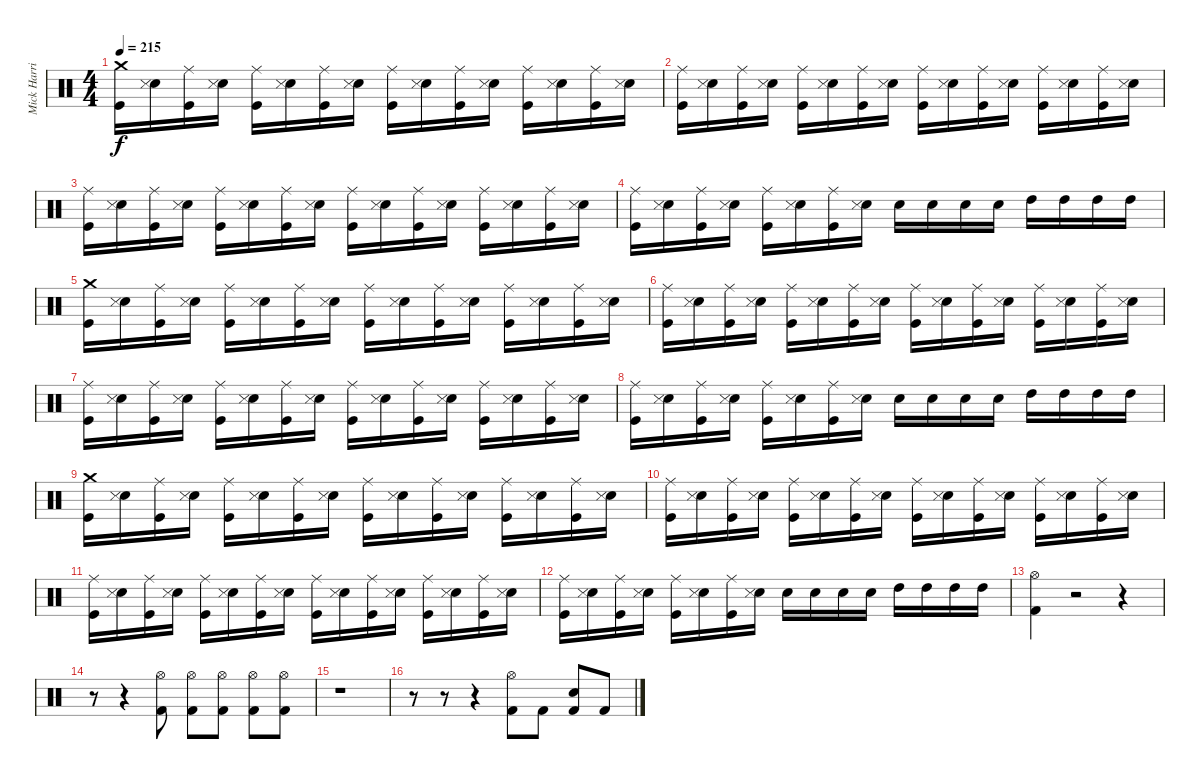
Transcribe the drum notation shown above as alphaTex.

\track ("Mick Harris (Drums)" "Mick Harri") {instrument percussion}
\staff {score}
\articulation defaults
\ts (4 4)
\tempo 215
\clef neutral
\ks c
("Kick (hit)" "Crash medium (hit)").16{dy f} ("Electric Snare (hit)" "Snare (side stick) 3").16 ("Kick (hit)" "Ride (middle)").16 ("Electric Snare (hit)" "Snare (side stick) 3").16 ("Kick (hit)" "Ride (middle)").16 ("Electric Snare (hit)" "Snare (side stick) 3").16 ("Kick (hit)" "Ride (middle)").16 ("Electric Snare (hit)" "Snare (side stick) 3").16 ("Kick (hit)" "Ride (middle)").16 ("Electric Snare (hit)" "Snare (side stick) 3").16 ("Kick (hit)" "Ride (middle)").16 ("Electric Snare (hit)" "Snare (side stick) 3").16 ("Kick (hit)" "Ride (middle)").16 ("Electric Snare (hit)" "Snare (side stick) 3").16 ("Kick (hit)" "Ride (middle)").16 ("Electric Snare (hit)" "Snare (side stick) 3").16 |
("Kick (hit)" "Ride (middle)").16 ("Electric Snare (hit)" "Snare (side stick) 3").16 ("Kick (hit)" "Ride (middle)").16 ("Electric Snare (hit)" "Snare (side stick) 3").16 ("Kick (hit)" "Ride (middle)").16 ("Electric Snare (hit)" "Snare (side stick) 3").16 ("Kick (hit)" "Ride (middle)").16 ("Electric Snare (hit)" "Snare (side stick) 3").16 ("Kick (hit)" "Ride (middle)").16 ("Electric Snare (hit)" "Snare (side stick) 3").16 ("Kick (hit)" "Ride (middle)").16 ("Electric Snare (hit)" "Snare (side stick) 3").16 ("Kick (hit)" "Ride (middle)").16 ("Electric Snare (hit)" "Snare (side stick) 3").16 ("Kick (hit)" "Ride (middle)").16 ("Electric Snare (hit)" "Snare (side stick) 3").16 |
("Kick (hit)" "Ride (middle)").16 ("Electric Snare (hit)" "Snare (side stick) 3").16 ("Kick (hit)" "Ride (middle)").16 ("Electric Snare (hit)" "Snare (side stick) 3").16 ("Kick (hit)" "Ride (middle)").16 ("Electric Snare (hit)" "Snare (side stick) 3").16 ("Kick (hit)" "Ride (middle)").16 ("Electric Snare (hit)" "Snare (side stick) 3").16 ("Kick (hit)" "Ride (middle)").16 ("Electric Snare (hit)" "Snare (side stick) 3").16 ("Kick (hit)" "Ride (middle)").16 ("Electric Snare (hit)" "Snare (side stick) 3").16 ("Kick (hit)" "Ride (middle)").16 ("Electric Snare (hit)" "Snare (side stick) 3").16 ("Kick (hit)" "Ride (middle)").16 ("Electric Snare (hit)" "Snare (side stick) 3").16 |
("Kick (hit)" "Ride (middle)").16 ("Electric Snare (hit)" "Snare (side stick) 3").16 ("Kick (hit)" "Ride (middle)").16 ("Electric Snare (hit)" "Snare (side stick) 3").16 ("Kick (hit)" "Ride (middle)").16 ("Electric Snare (hit)" "Snare (side stick) 3").16 ("Kick (hit)" "Ride (middle)").16 ("Electric Snare (hit)" "Snare (side stick) 3").16 "Electric Snare (hit)".16 "Electric Snare (hit)".16 "Electric Snare (hit)".16 "Electric Snare (hit)".16 "High Tom (hit)".16 "High Tom (hit)".16 "High Tom (hit)".16 "High Tom (hit)".16 |
("Kick (hit)" "Crash medium (hit)").16 ("Electric Snare (hit)" "Snare (side stick) 3").16 ("Kick (hit)" "Ride (middle)").16 ("Electric Snare (hit)" "Snare (side stick) 3").16 ("Kick (hit)" "Ride (middle)").16 ("Electric Snare (hit)" "Snare (side stick) 3").16 ("Kick (hit)" "Ride (middle)").16 ("Electric Snare (hit)" "Snare (side stick) 3").16 ("Kick (hit)" "Ride (middle)").16 ("Electric Snare (hit)" "Snare (side stick) 3").16 ("Kick (hit)" "Ride (middle)").16 ("Electric Snare (hit)" "Snare (side stick) 3").16 ("Kick (hit)" "Ride (middle)").16 ("Electric Snare (hit)" "Snare (side stick) 3").16 ("Kick (hit)" "Ride (middle)").16 ("Electric Snare (hit)" "Snare (side stick) 3").16 |
("Kick (hit)" "Ride (middle)").16 ("Electric Snare (hit)" "Snare (side stick) 3").16 ("Kick (hit)" "Ride (middle)").16 ("Electric Snare (hit)" "Snare (side stick) 3").16 ("Kick (hit)" "Ride (middle)").16 ("Electric Snare (hit)" "Snare (side stick) 3").16 ("Kick (hit)" "Ride (middle)").16 ("Electric Snare (hit)" "Snare (side stick) 3").16 ("Kick (hit)" "Ride (middle)").16 ("Electric Snare (hit)" "Snare (side stick) 3").16 ("Kick (hit)" "Ride (middle)").16 ("Electric Snare (hit)" "Snare (side stick) 3").16 ("Kick (hit)" "Ride (middle)").16 ("Electric Snare (hit)" "Snare (side stick) 3").16 ("Kick (hit)" "Ride (middle)").16 ("Electric Snare (hit)" "Snare (side stick) 3").16 |
("Kick (hit)" "Ride (middle)").16 ("Electric Snare (hit)" "Snare (side stick) 3").16 ("Kick (hit)" "Ride (middle)").16 ("Electric Snare (hit)" "Snare (side stick) 3").16 ("Kick (hit)" "Ride (middle)").16 ("Electric Snare (hit)" "Snare (side stick) 3").16 ("Kick (hit)" "Ride (middle)").16 ("Electric Snare (hit)" "Snare (side stick) 3").16 ("Kick (hit)" "Ride (middle)").16 ("Electric Snare (hit)" "Snare (side stick) 3").16 ("Kick (hit)" "Ride (middle)").16 ("Electric Snare (hit)" "Snare (side stick) 3").16 ("Kick (hit)" "Ride (middle)").16 ("Electric Snare (hit)" "Snare (side stick) 3").16 ("Kick (hit)" "Ride (middle)").16 ("Electric Snare (hit)" "Snare (side stick) 3").16 |
("Kick (hit)" "Ride (middle)").16 ("Electric Snare (hit)" "Snare (side stick) 3").16 ("Kick (hit)" "Ride (middle)").16 ("Electric Snare (hit)" "Snare (side stick) 3").16 ("Kick (hit)" "Ride (middle)").16 ("Electric Snare (hit)" "Snare (side stick) 3").16 ("Kick (hit)" "Ride (middle)").16 ("Electric Snare (hit)" "Snare (side stick) 3").16 "Electric Snare (hit)".16 "Electric Snare (hit)".16 "Electric Snare (hit)".16 "Electric Snare (hit)".16 "High Tom (hit)".16 "High Tom (hit)".16 "High Tom (hit)".16 "High Tom (hit)".16 |
("Kick (hit)" "Crash medium (hit)").16 ("Electric Snare (hit)" "Snare (side stick) 3").16 ("Kick (hit)" "Ride (middle)").16 ("Electric Snare (hit)" "Snare (side stick) 3").16 ("Kick (hit)" "Ride (middle)").16 ("Electric Snare (hit)" "Snare (side stick) 3").16 ("Kick (hit)" "Ride (middle)").16 ("Electric Snare (hit)" "Snare (side stick) 3").16 ("Kick (hit)" "Ride (middle)").16 ("Electric Snare (hit)" "Snare (side stick) 3").16 ("Kick (hit)" "Ride (middle)").16 ("Electric Snare (hit)" "Snare (side stick) 3").16 ("Kick (hit)" "Ride (middle)").16 ("Electric Snare (hit)" "Snare (side stick) 3").16 ("Kick (hit)" "Ride (middle)").16 ("Electric Snare (hit)" "Snare (side stick) 3").16 |
("Kick (hit)" "Ride (middle)").16 ("Electric Snare (hit)" "Snare (side stick) 3").16 ("Kick (hit)" "Ride (middle)").16 ("Electric Snare (hit)" "Snare (side stick) 3").16 ("Kick (hit)" "Ride (middle)").16 ("Electric Snare (hit)" "Snare (side stick) 3").16 ("Kick (hit)" "Ride (middle)").16 ("Electric Snare (hit)" "Snare (side stick) 3").16 ("Kick (hit)" "Ride (middle)").16 ("Electric Snare (hit)" "Snare (side stick) 3").16 ("Kick (hit)" "Ride (middle)").16 ("Electric Snare (hit)" "Snare (side stick) 3").16 ("Kick (hit)" "Ride (middle)").16 ("Electric Snare (hit)" "Snare (side stick) 3").16 ("Kick (hit)" "Ride (middle)").16 ("Electric Snare (hit)" "Snare (side stick) 3").16 |
("Kick (hit)" "Ride (middle)").16 ("Electric Snare (hit)" "Snare (side stick) 3").16 ("Kick (hit)" "Ride (middle)").16 ("Electric Snare (hit)" "Snare (side stick) 3").16 ("Kick (hit)" "Ride (middle)").16 ("Electric Snare (hit)" "Snare (side stick) 3").16 ("Kick (hit)" "Ride (middle)").16 ("Electric Snare (hit)" "Snare (side stick) 3").16 ("Kick (hit)" "Ride (middle)").16 ("Electric Snare (hit)" "Snare (side stick) 3").16 ("Kick (hit)" "Ride (middle)").16 ("Electric Snare (hit)" "Snare (side stick) 3").16 ("Kick (hit)" "Ride (middle)").16 ("Electric Snare (hit)" "Snare (side stick) 3").16 ("Kick (hit)" "Ride (middle)").16 ("Electric Snare (hit)" "Snare (side stick) 3").16 |
("Kick (hit)" "Ride (middle)").16 ("Electric Snare (hit)" "Snare (side stick) 3").16 ("Kick (hit)" "Ride (middle)").16 ("Electric Snare (hit)" "Snare (side stick) 3").16 ("Kick (hit)" "Ride (middle)").16 ("Electric Snare (hit)" "Snare (side stick) 3").16 ("Kick (hit)" "Ride (middle)").16 ("Electric Snare (hit)" "Snare (side stick) 3").16 "Electric Snare (hit)".16 "Electric Snare (hit)".16 "Electric Snare (hit)".16 "Electric Snare (hit)".16 "High Tom (hit)".16 "High Tom (hit)".16 "High Tom (hit)".16 "High Tom (hit)".16 |
("Kick (hit) 2" "Hi-Hat (open)").4 r.2 r.4 |
r.8 r.4 ("Kick (hit) 2" "Hi-Hat (open)").8 ("Kick (hit) 2" "Hi-Hat (open)").8 ("Kick (hit) 2" "Hi-Hat (open)").8 ("Kick (hit) 2" "Hi-Hat (open)").8 ("Kick (hit) 2" "Hi-Hat (open)").8 |
r.1 |
r.8 r.8 r.4 ("Kick (hit) 2" "Hi-Hat (open)").8 "Kick (hit) 2".8 ("Kick (hit) 2" "Electric Snare (hit)").8 "Kick (hit) 2".8
